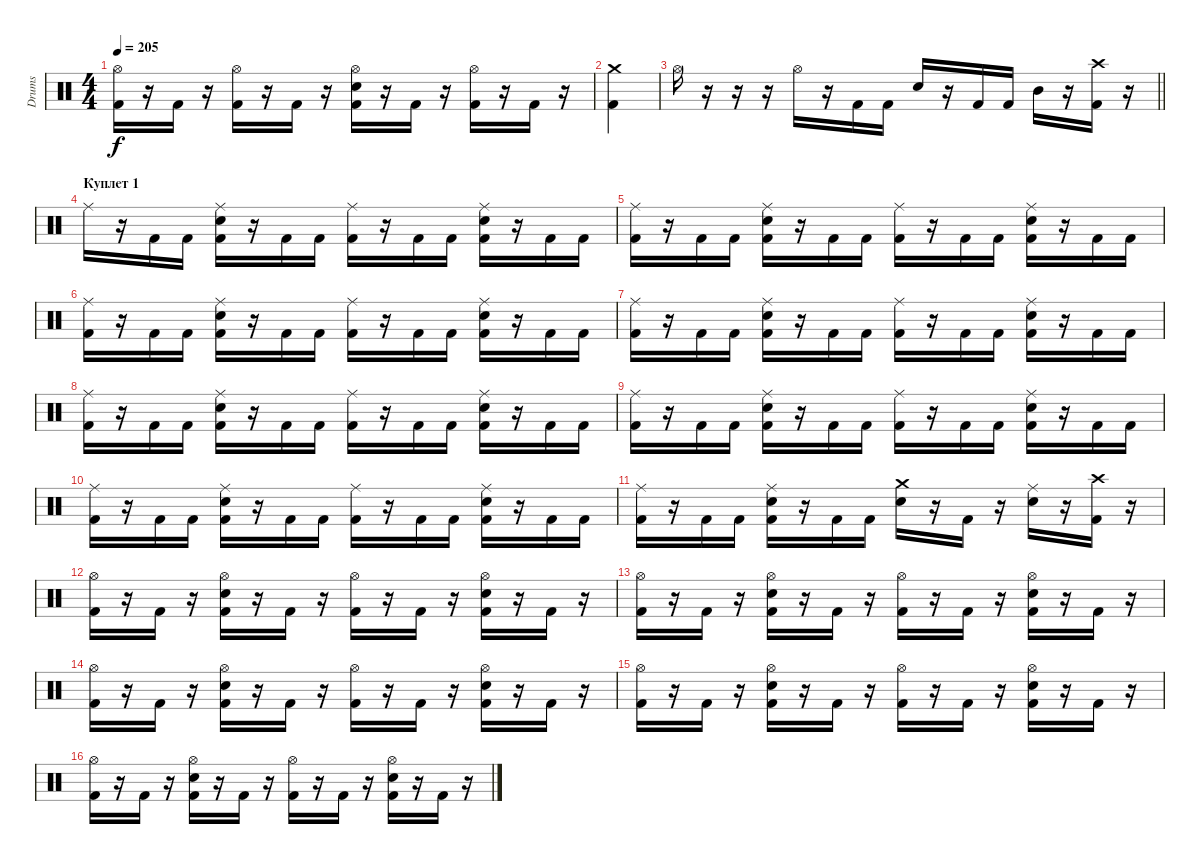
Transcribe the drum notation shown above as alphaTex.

\track ("Drums" "Drums") {instrument percussion}
\staff {score}
\articulation defaults
\ts (4 4)
\tempo 205
\clef neutral
\ks c
("Hi-Hat (open)" "Kick (hit) 2").16{dy f} r.16 "Kick (hit) 2".16 r.16 ("Hi-Hat (open)" "Kick (hit) 2").16 r.16 "Kick (hit) 2".16 r.16 ("Hi-Hat (open)" "Electric Snare (hit)" "Kick (hit) 2").16 r.16 "Kick (hit) 2".16 r.16 ("Hi-Hat (open)" "Kick (hit) 2").16 r.16 "Kick (hit) 2".16 r.16 |
("Crash medium (hit)" "Kick (hit) 2").4 |
\barLineRight lightlight "Hi-Hat (open)".16
r.16 r.16 r.16 "Hi-Hat (open)".16 r.16 "Kick (hit) 2".16 "Kick (hit) 2".16 "Electric Snare (hit)".16 r.16 "Kick (hit) 2".16 "Kick (hit) 2".16 "Mid Tom (hit)".16 r.16 ("Crash high (hit)" "Kick (hit) 2").16 r.16 |
\section ("" "Куплет 1")
"Ride (middle)".16 r.16 "Kick (hit) 2".16 "Kick (hit) 2".16 ("Ride (middle)" "Electric Snare (hit)" "Kick (hit) 2").16 r.16 "Kick (hit) 2".16 "Kick (hit) 2".16 ("Ride (middle)" "Kick (hit) 2").16 r.16 "Kick (hit) 2".16 "Kick (hit) 2".16 ("Ride (middle)" "Electric Snare (hit)" "Kick (hit) 2").16 r.16 "Kick (hit) 2".16 "Kick (hit) 2".16 |
("Ride (middle)" "Kick (hit) 2").16 r.16 "Kick (hit) 2".16 "Kick (hit) 2".16 ("Ride (middle)" "Electric Snare (hit)" "Kick (hit) 2").16 r.16 "Kick (hit) 2".16 "Kick (hit) 2".16 ("Ride (middle)" "Kick (hit) 2").16 r.16 "Kick (hit) 2".16 "Kick (hit) 2".16 ("Ride (middle)" "Electric Snare (hit)" "Kick (hit) 2").16 r.16 "Kick (hit) 2".16 "Kick (hit) 2".16 |
("Ride (middle)" "Kick (hit) 2").16 r.16 "Kick (hit) 2".16 "Kick (hit) 2".16 ("Ride (middle)" "Electric Snare (hit)" "Kick (hit) 2").16 r.16 "Kick (hit) 2".16 "Kick (hit) 2".16 ("Ride (middle)" "Kick (hit) 2").16 r.16 "Kick (hit) 2".16 "Kick (hit) 2".16 ("Ride (middle)" "Electric Snare (hit)" "Kick (hit) 2").16 r.16 "Kick (hit) 2".16 "Kick (hit) 2".16 |
("Ride (middle)" "Kick (hit) 2").16 r.16 "Kick (hit) 2".16 "Kick (hit) 2".16 ("Ride (middle)" "Electric Snare (hit)" "Kick (hit) 2").16 r.16 "Kick (hit) 2".16 "Kick (hit) 2".16 ("Ride (middle)" "Kick (hit) 2").16 r.16 "Kick (hit) 2".16 "Kick (hit) 2".16 ("Ride (middle)" "Electric Snare (hit)" "Kick (hit) 2").16 r.16 "Kick (hit) 2".16 "Kick (hit) 2".16 |
("Ride (middle)" "Kick (hit) 2").16 r.16 "Kick (hit) 2".16 "Kick (hit) 2".16 ("Ride (middle)" "Electric Snare (hit)" "Kick (hit) 2").16 r.16 "Kick (hit) 2".16 "Kick (hit) 2".16 ("Ride (middle)" "Kick (hit) 2").16 r.16 "Kick (hit) 2".16 "Kick (hit) 2".16 ("Ride (middle)" "Electric Snare (hit)" "Kick (hit) 2").16 r.16 "Kick (hit) 2".16 "Kick (hit) 2".16 |
("Ride (middle)" "Kick (hit) 2").16 r.16 "Kick (hit) 2".16 "Kick (hit) 2".16 ("Ride (middle)" "Electric Snare (hit)" "Kick (hit) 2").16 r.16 "Kick (hit) 2".16 "Kick (hit) 2".16 ("Ride (middle)" "Kick (hit) 2").16 r.16 "Kick (hit) 2".16 "Kick (hit) 2".16 ("Ride (middle)" "Electric Snare (hit)" "Kick (hit) 2").16 r.16 "Kick (hit) 2".16 "Kick (hit) 2".16 |
("Ride (middle)" "Kick (hit) 2").16 r.16 "Kick (hit) 2".16 "Kick (hit) 2".16 ("Ride (middle)" "Electric Snare (hit)" "Kick (hit) 2").16 r.16 "Kick (hit) 2".16 "Kick (hit) 2".16 ("Ride (middle)" "Kick (hit) 2").16 r.16 "Kick (hit) 2".16 "Kick (hit) 2".16 ("Ride (middle)" "Electric Snare (hit)" "Kick (hit) 2").16 r.16 "Kick (hit) 2".16 "Kick (hit) 2".16 |
("Ride (middle)" "Kick (hit) 2").16 r.16 "Kick (hit) 2".16 "Kick (hit) 2".16 ("Ride (middle)" "Electric Snare (hit)" "Kick (hit) 2").16 r.16 "Kick (hit) 2".16 "Kick (hit) 2".16 ("Crash medium (hit)" "Electric Snare (hit)").16 r.16 "Kick (hit) 2".16 r.16 ("Ride (middle)" "Electric Snare (hit)").16 r.16 ("Crash high (hit)" "Kick (hit) 2").16 r.16 |
("Hi-Hat (open)" "Kick (hit) 2").16 r.16 "Kick (hit) 2".16 r.16 ("Hi-Hat (open)" "Electric Snare (hit)" "Kick (hit) 2").16 r.16 "Kick (hit) 2".16 r.16 ("Hi-Hat (open)" "Kick (hit) 2").16 r.16 "Kick (hit) 2".16 r.16 ("Hi-Hat (open)" "Electric Snare (hit)" "Kick (hit) 2").16 r.16 "Kick (hit) 2".16 r.16 |
("Hi-Hat (open)" "Kick (hit) 2").16 r.16 "Kick (hit) 2".16 r.16 ("Hi-Hat (open)" "Electric Snare (hit)" "Kick (hit) 2").16 r.16 "Kick (hit) 2".16 r.16 ("Hi-Hat (open)" "Kick (hit) 2").16 r.16 "Kick (hit) 2".16 r.16 ("Hi-Hat (open)" "Electric Snare (hit)" "Kick (hit) 2").16 r.16 "Kick (hit) 2".16 r.16 |
("Hi-Hat (open)" "Kick (hit) 2").16 r.16 "Kick (hit) 2".16 r.16 ("Hi-Hat (open)" "Electric Snare (hit)" "Kick (hit) 2").16 r.16 "Kick (hit) 2".16 r.16 ("Hi-Hat (open)" "Kick (hit) 2").16 r.16 "Kick (hit) 2".16 r.16 ("Hi-Hat (open)" "Electric Snare (hit)" "Kick (hit) 2").16 r.16 "Kick (hit) 2".16 r.16 |
("Hi-Hat (open)" "Kick (hit) 2").16 r.16 "Kick (hit) 2".16 r.16 ("Hi-Hat (open)" "Electric Snare (hit)" "Kick (hit) 2").16 r.16 "Kick (hit) 2".16 r.16 ("Hi-Hat (open)" "Kick (hit) 2").16 r.16 "Kick (hit) 2".16 r.16 ("Hi-Hat (open)" "Electric Snare (hit)" "Kick (hit) 2").16 r.16 "Kick (hit) 2".16 r.16 |
("Hi-Hat (open)" "Kick (hit) 2").16 r.16 "Kick (hit) 2".16 r.16 ("Hi-Hat (open)" "Electric Snare (hit)" "Kick (hit) 2").16 r.16 "Kick (hit) 2".16 r.16 ("Hi-Hat (open)" "Kick (hit) 2").16 r.16 "Kick (hit) 2".16 r.16 ("Hi-Hat (open)" "Electric Snare (hit)" "Kick (hit) 2").16 r.16 "Kick (hit) 2".16 r.16
